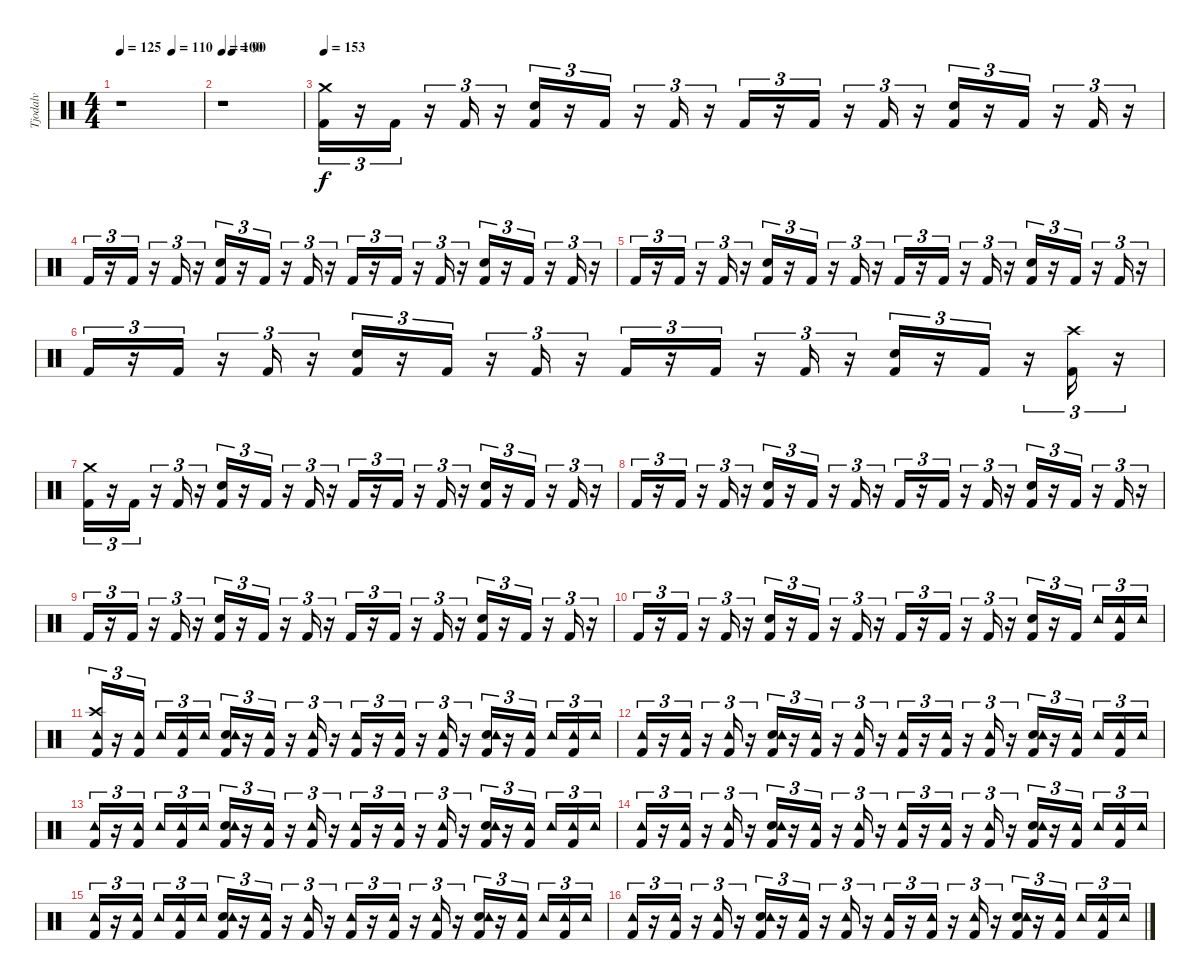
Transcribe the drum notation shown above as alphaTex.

\track ("Tjodalv" "Tjodalv") {instrument percussion}
\staff {score}
\articulation defaults
\ts (4 4)
\tempo 125
\tempo (110 0.625)
\clef neutral
\ks c
r.1{dy f} |
\tempo 100
\tempo (90 0.125)
r.1 |
\tempo 153
("Kick (hit) 2" "Crash medium (hit)").16{tu (3 2)} r.16{tu (3 2)} "Kick (hit) 2".16{tu (3 2)} r.16{tu (3 2)} "Kick (hit) 2".16{tu (3 2)} r.16{tu (3 2)} ("Kick (hit) 2" "Snare (hit) 2").16{tu (3 2)} r.16{tu (3 2)} "Kick (hit) 2".16{tu (3 2)} r.16{tu (3 2)} "Kick (hit) 2".16{tu (3 2)} r.16{tu (3 2)} "Kick (hit) 2".16{tu (3 2)} r.16{tu (3 2)} "Kick (hit) 2".16{tu (3 2)} r.16{tu (3 2)} "Kick (hit) 2".16{tu (3 2)} r.16{tu (3 2)} ("Kick (hit) 2" "Snare (hit) 2").16{tu (3 2)} r.16{tu (3 2)} "Kick (hit) 2".16{tu (3 2)} r.16{tu (3 2)} "Kick (hit) 2".16{tu (3 2)} r.16{tu (3 2)} |
"Kick (hit) 2".16{tu (3 2)} r.16{tu (3 2)} "Kick (hit) 2".16{tu (3 2)} r.16{tu (3 2)} "Kick (hit) 2".16{tu (3 2)} r.16{tu (3 2)} ("Kick (hit) 2" "Snare (hit) 2").16{tu (3 2)} r.16{tu (3 2)} "Kick (hit) 2".16{tu (3 2)} r.16{tu (3 2)} "Kick (hit) 2".16{tu (3 2)} r.16{tu (3 2)} "Kick (hit) 2".16{tu (3 2)} r.16{tu (3 2)} "Kick (hit) 2".16{tu (3 2)} r.16{tu (3 2)} "Kick (hit) 2".16{tu (3 2)} r.16{tu (3 2)} ("Kick (hit) 2" "Snare (hit) 2").16{tu (3 2)} r.16{tu (3 2)} "Kick (hit) 2".16{tu (3 2)} r.16{tu (3 2)} "Kick (hit) 2".16{tu (3 2)} r.16{tu (3 2)} |
"Kick (hit) 2".16{tu (3 2)} r.16{tu (3 2)} "Kick (hit) 2".16{tu (3 2)} r.16{tu (3 2)} "Kick (hit) 2".16{tu (3 2)} r.16{tu (3 2)} ("Kick (hit) 2" "Snare (hit) 2").16{tu (3 2)} r.16{tu (3 2)} "Kick (hit) 2".16{tu (3 2)} r.16{tu (3 2)} "Kick (hit) 2".16{tu (3 2)} r.16{tu (3 2)} "Kick (hit) 2".16{tu (3 2)} r.16{tu (3 2)} "Kick (hit) 2".16{tu (3 2)} r.16{tu (3 2)} "Kick (hit) 2".16{tu (3 2)} r.16{tu (3 2)} ("Kick (hit) 2" "Snare (hit) 2").16{tu (3 2)} r.16{tu (3 2)} "Kick (hit) 2".16{tu (3 2)} r.16{tu (3 2)} "Kick (hit) 2".16{tu (3 2)} r.16{tu (3 2)} |
"Kick (hit) 2".16{tu (3 2)} r.16{tu (3 2)} "Kick (hit) 2".16{tu (3 2)} r.16{tu (3 2)} "Kick (hit) 2".16{tu (3 2)} r.16{tu (3 2)} ("Kick (hit) 2" "Snare (hit) 2").16{tu (3 2)} r.16{tu (3 2)} "Kick (hit) 2".16{tu (3 2)} r.16{tu (3 2)} "Kick (hit) 2".16{tu (3 2)} r.16{tu (3 2)} "Kick (hit) 2".16{tu (3 2)} r.16{tu (3 2)} "Kick (hit) 2".16{tu (3 2)} r.16{tu (3 2)} "Kick (hit) 2".16{tu (3 2)} r.16{tu (3 2)} ("Kick (hit) 2" "Snare (hit) 2").16{tu (3 2)} r.16{tu (3 2)} "Kick (hit) 2".16{tu (3 2)} r.16{tu (3 2)} ("Kick (hit) 2" "Crash high (hit)").16{tu (3 2)} r.16{tu (3 2)} |
("Kick (hit) 2" "Crash medium (hit)").16{tu (3 2)} r.16{tu (3 2)} "Kick (hit) 2".16{tu (3 2)} r.16{tu (3 2)} "Kick (hit) 2".16{tu (3 2)} r.16{tu (3 2)} ("Kick (hit) 2" "Snare (hit) 2").16{tu (3 2)} r.16{tu (3 2)} "Kick (hit) 2".16{tu (3 2)} r.16{tu (3 2)} "Kick (hit) 2".16{tu (3 2)} r.16{tu (3 2)} "Kick (hit) 2".16{tu (3 2)} r.16{tu (3 2)} "Kick (hit) 2".16{tu (3 2)} r.16{tu (3 2)} "Kick (hit) 2".16{tu (3 2)} r.16{tu (3 2)} ("Kick (hit) 2" "Snare (hit) 2").16{tu (3 2)} r.16{tu (3 2)} "Kick (hit) 2".16{tu (3 2)} r.16{tu (3 2)} "Kick (hit) 2".16{tu (3 2)} r.16{tu (3 2)} |
"Kick (hit) 2".16{tu (3 2)} r.16{tu (3 2)} "Kick (hit) 2".16{tu (3 2)} r.16{tu (3 2)} "Kick (hit) 2".16{tu (3 2)} r.16{tu (3 2)} ("Kick (hit) 2" "Snare (hit) 2").16{tu (3 2)} r.16{tu (3 2)} "Kick (hit) 2".16{tu (3 2)} r.16{tu (3 2)} "Kick (hit) 2".16{tu (3 2)} r.16{tu (3 2)} "Kick (hit) 2".16{tu (3 2)} r.16{tu (3 2)} "Kick (hit) 2".16{tu (3 2)} r.16{tu (3 2)} "Kick (hit) 2".16{tu (3 2)} r.16{tu (3 2)} ("Kick (hit) 2" "Snare (hit) 2").16{tu (3 2)} r.16{tu (3 2)} "Kick (hit) 2".16{tu (3 2)} r.16{tu (3 2)} "Kick (hit) 2".16{tu (3 2)} r.16{tu (3 2)} |
"Kick (hit) 2".16{tu (3 2)} r.16{tu (3 2)} "Kick (hit) 2".16{tu (3 2)} r.16{tu (3 2)} "Kick (hit) 2".16{tu (3 2)} r.16{tu (3 2)} ("Kick (hit) 2" "Snare (hit) 2").16{tu (3 2)} r.16{tu (3 2)} "Kick (hit) 2".16{tu (3 2)} r.16{tu (3 2)} "Kick (hit) 2".16{tu (3 2)} r.16{tu (3 2)} "Kick (hit) 2".16{tu (3 2)} r.16{tu (3 2)} "Kick (hit) 2".16{tu (3 2)} r.16{tu (3 2)} "Kick (hit) 2".16{tu (3 2)} r.16{tu (3 2)} ("Kick (hit) 2" "Snare (hit) 2").16{tu (3 2)} r.16{tu (3 2)} "Kick (hit) 2".16{tu (3 2)} r.16{tu (3 2)} "Kick (hit) 2".16{tu (3 2)} r.16{tu (3 2)} |
"Kick (hit) 2".16{tu (3 2)} r.16{tu (3 2)} "Kick (hit) 2".16{tu (3 2)} r.16{tu (3 2)} "Kick (hit) 2".16{tu (3 2)} r.16{tu (3 2)} ("Kick (hit) 2" "Snare (hit) 2").16{tu (3 2)} r.16{tu (3 2)} "Kick (hit) 2".16{tu (3 2)} r.16{tu (3 2)} "Kick (hit) 2".16{tu (3 2)} r.16{tu (3 2)} "Kick (hit) 2".16{tu (3 2)} r.16{tu (3 2)} "Kick (hit) 2".16{tu (3 2)} r.16{tu (3 2)} "Kick (hit) 2".16{tu (3 2)} r.16{tu (3 2)} ("Kick (hit) 2" "Snare (hit) 2").16{tu (3 2)} r.16{tu (3 2)} "Kick (hit) 2".16{tu (3 2)} "Tambourine (hit)".16{tu (3 2)} ("Kick (hit) 2" "Tambourine (hit)").16{tu (3 2)} "Tambourine (hit)".16{tu (3 2)} |
("Kick (hit) 2" "Crash high (hit)" "Tambourine (hit)").16{tu (3 2)} r.16{tu (3 2)} ("Kick (hit) 2" "Tambourine (hit)").16{tu (3 2)} "Tambourine (hit)".16{tu (3 2)} ("Kick (hit) 2" "Tambourine (hit)").16{tu (3 2)} "Tambourine (hit)".16{tu (3 2)} ("Kick (hit) 2" "Snare (hit) 2" "Tambourine (hit)").16{tu (3 2)} r.16{tu (3 2)} ("Kick (hit) 2" "Tambourine (hit)").16{tu (3 2)} r.16{tu (3 2)} ("Kick (hit) 2" "Tambourine (hit)").16{tu (3 2)} r.16{tu (3 2)} ("Kick (hit) 2" "Tambourine (hit)").16{tu (3 2)} r.16{tu (3 2)} ("Kick (hit) 2" "Tambourine (hit)").16{tu (3 2)} r.16{tu (3 2)} ("Kick (hit) 2" "Tambourine (hit)").16{tu (3 2)} r.16{tu (3 2)} ("Kick (hit) 2" "Snare (hit) 2" "Tambourine (hit)").16{tu (3 2)} r.16{tu (3 2)} ("Kick (hit) 2" "Tambourine (hit)").16{tu (3 2)} "Tambourine (hit)".16{tu (3 2)} ("Kick (hit) 2" "Tambourine (hit)").16{tu (3 2)} "Tambourine (hit)".16{tu (3 2)} |
("Kick (hit) 2" "Tambourine (hit)").16{tu (3 2)} r.16{tu (3 2)} ("Kick (hit) 2" "Tambourine (hit)").16{tu (3 2)} r.16{tu (3 2)} ("Kick (hit) 2" "Tambourine (hit)").16{tu (3 2)} r.16{tu (3 2)} ("Kick (hit) 2" "Snare (hit) 2" "Tambourine (hit)").16{tu (3 2)} r.16{tu (3 2)} ("Kick (hit) 2" "Tambourine (hit)").16{tu (3 2)} r.16{tu (3 2)} ("Kick (hit) 2" "Tambourine (hit)").16{tu (3 2)} r.16{tu (3 2)} ("Kick (hit) 2" "Tambourine (hit)").16{tu (3 2)} r.16{tu (3 2)} ("Kick (hit) 2" "Tambourine (hit)").16{tu (3 2)} r.16{tu (3 2)} ("Kick (hit) 2" "Tambourine (hit)").16{tu (3 2)} r.16{tu (3 2)} ("Kick (hit) 2" "Snare (hit) 2" "Tambourine (hit)").16{tu (3 2)} r.16{tu (3 2)} ("Kick (hit) 2" "Tambourine (hit)").16{tu (3 2)} "Tambourine (hit)".16{tu (3 2)} ("Kick (hit) 2" "Tambourine (hit)").16{tu (3 2)} "Tambourine (hit)".16{tu (3 2)} |
("Kick (hit) 2" "Tambourine (hit)").16{tu (3 2)} r.16{tu (3 2)} ("Kick (hit) 2" "Tambourine (hit)").16{tu (3 2)} "Tambourine (hit)".16{tu (3 2)} ("Kick (hit) 2" "Tambourine (hit)").16{tu (3 2)} "Tambourine (hit)".16{tu (3 2)} ("Kick (hit) 2" "Snare (hit) 2" "Tambourine (hit)").16{tu (3 2)} r.16{tu (3 2)} ("Kick (hit) 2" "Tambourine (hit)").16{tu (3 2)} r.16{tu (3 2)} ("Kick (hit) 2" "Tambourine (hit)").16{tu (3 2)} r.16{tu (3 2)} ("Kick (hit) 2" "Tambourine (hit)").16{tu (3 2)} r.16{tu (3 2)} ("Kick (hit) 2" "Tambourine (hit)").16{tu (3 2)} r.16{tu (3 2)} ("Kick (hit) 2" "Tambourine (hit)").16{tu (3 2)} r.16{tu (3 2)} ("Kick (hit) 2" "Snare (hit) 2" "Tambourine (hit)").16{tu (3 2)} r.16{tu (3 2)} ("Kick (hit) 2" "Tambourine (hit)").16{tu (3 2)} "Tambourine (hit)".16{tu (3 2)} ("Kick (hit) 2" "Tambourine (hit)").16{tu (3 2)} "Tambourine (hit)".16{tu (3 2)} |
("Kick (hit) 2" "Tambourine (hit)").16{tu (3 2)} r.16{tu (3 2)} ("Kick (hit) 2" "Tambourine (hit)").16{tu (3 2)} r.16{tu (3 2)} ("Kick (hit) 2" "Tambourine (hit)").16{tu (3 2)} r.16{tu (3 2)} ("Kick (hit) 2" "Snare (hit) 2" "Tambourine (hit)").16{tu (3 2)} r.16{tu (3 2)} ("Kick (hit) 2" "Tambourine (hit)").16{tu (3 2)} r.16{tu (3 2)} ("Kick (hit) 2" "Tambourine (hit)").16{tu (3 2)} r.16{tu (3 2)} ("Kick (hit) 2" "Tambourine (hit)").16{tu (3 2)} r.16{tu (3 2)} ("Kick (hit) 2" "Tambourine (hit)").16{tu (3 2)} r.16{tu (3 2)} ("Kick (hit) 2" "Tambourine (hit)").16{tu (3 2)} r.16{tu (3 2)} ("Kick (hit) 2" "Snare (hit) 2" "Tambourine (hit)").16{tu (3 2)} r.16{tu (3 2)} ("Kick (hit) 2" "Tambourine (hit)").16{tu (3 2)} "Tambourine (hit)".16{tu (3 2)} ("Kick (hit) 2" "Tambourine (hit)").16{tu (3 2)} "Tambourine (hit)".16{tu (3 2)} |
("Kick (hit) 2" "Tambourine (hit)").16{tu (3 2)} r.16{tu (3 2)} ("Kick (hit) 2" "Tambourine (hit)").16{tu (3 2)} "Tambourine (hit)".16{tu (3 2)} ("Kick (hit) 2" "Tambourine (hit)").16{tu (3 2)} "Tambourine (hit)".16{tu (3 2)} ("Kick (hit) 2" "Snare (hit) 2" "Tambourine (hit)").16{tu (3 2)} r.16{tu (3 2)} ("Kick (hit) 2" "Tambourine (hit)").16{tu (3 2)} r.16{tu (3 2)} ("Kick (hit) 2" "Tambourine (hit)").16{tu (3 2)} r.16{tu (3 2)} ("Kick (hit) 2" "Tambourine (hit)").16{tu (3 2)} r.16{tu (3 2)} ("Kick (hit) 2" "Tambourine (hit)").16{tu (3 2)} r.16{tu (3 2)} ("Kick (hit) 2" "Tambourine (hit)").16{tu (3 2)} r.16{tu (3 2)} ("Kick (hit) 2" "Snare (hit) 2" "Tambourine (hit)").16{tu (3 2)} r.16{tu (3 2)} ("Kick (hit) 2" "Tambourine (hit)").16{tu (3 2)} "Tambourine (hit)".16{tu (3 2)} ("Kick (hit) 2" "Tambourine (hit)").16{tu (3 2)} "Tambourine (hit)".16{tu (3 2)} |
("Kick (hit) 2" "Tambourine (hit)").16{tu (3 2)} r.16{tu (3 2)} ("Kick (hit) 2" "Tambourine (hit)").16{tu (3 2)} r.16{tu (3 2)} ("Kick (hit) 2" "Tambourine (hit)").16{tu (3 2)} r.16{tu (3 2)} ("Kick (hit) 2" "Snare (hit) 2" "Tambourine (hit)").16{tu (3 2)} r.16{tu (3 2)} ("Kick (hit) 2" "Tambourine (hit)").16{tu (3 2)} r.16{tu (3 2)} ("Kick (hit) 2" "Tambourine (hit)").16{tu (3 2)} r.16{tu (3 2)} ("Kick (hit) 2" "Tambourine (hit)").16{tu (3 2)} r.16{tu (3 2)} ("Kick (hit) 2" "Tambourine (hit)").16{tu (3 2)} r.16{tu (3 2)} ("Kick (hit) 2" "Tambourine (hit)").16{tu (3 2)} r.16{tu (3 2)} ("Kick (hit) 2" "Snare (hit) 2" "Tambourine (hit)").16{tu (3 2)} r.16{tu (3 2)} ("Kick (hit) 2" "Tambourine (hit)").16{tu (3 2)} "Tambourine (hit)".16{tu (3 2)} ("Kick (hit) 2" "Tambourine (hit)").16{tu (3 2)} "Tambourine (hit)".16{tu (3 2)}
